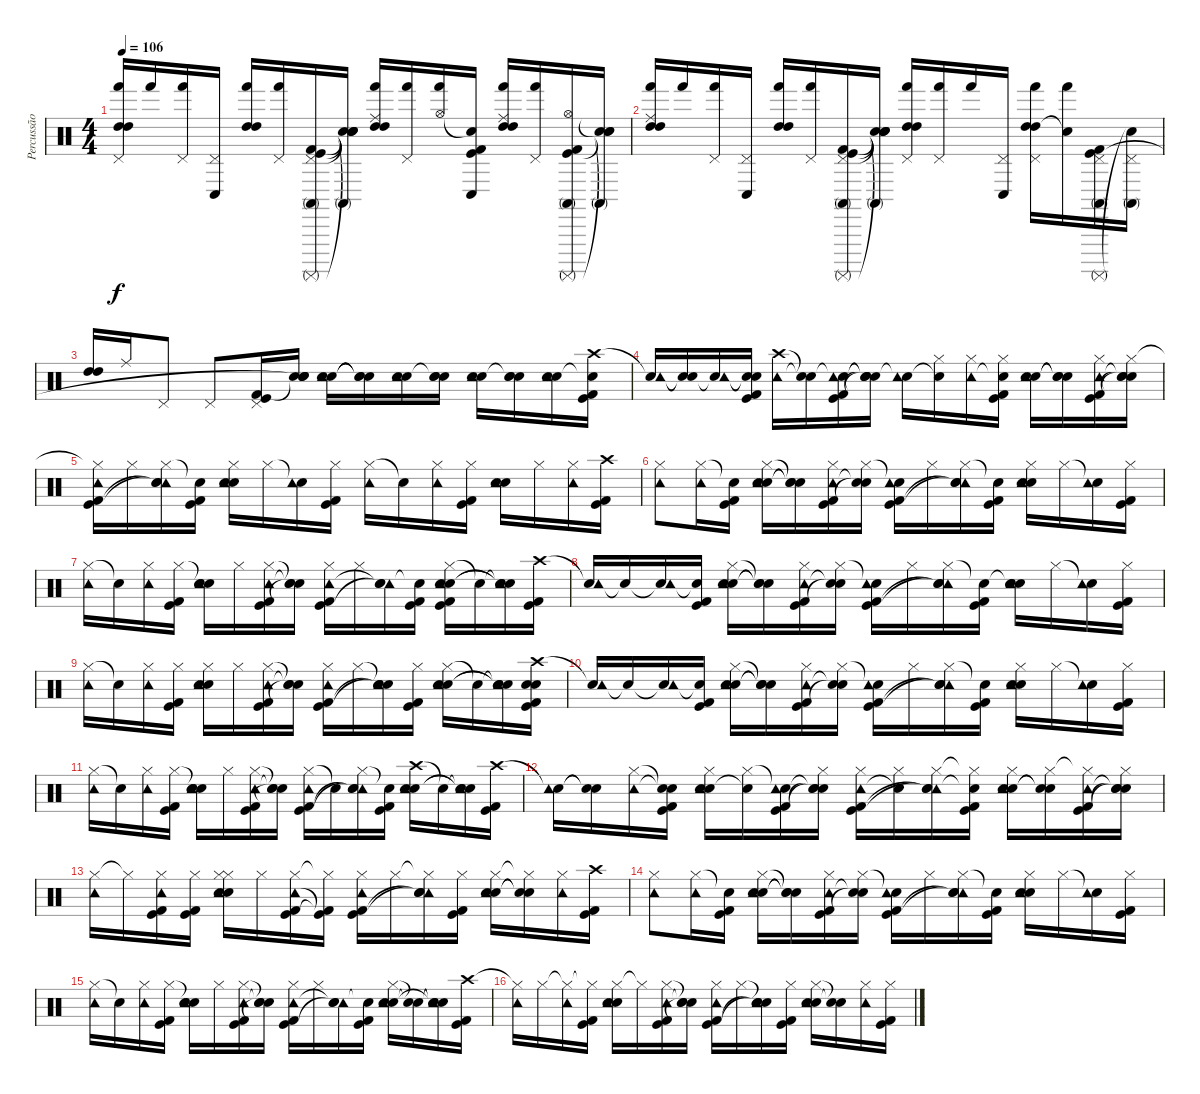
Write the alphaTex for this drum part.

\track ("Percussão" "Percussão") {instrument percussion}
\staff {score}
\articulation defaults
\ts (4 4)
\tempo 106
\clef neutral
\ks c
("Hand (hit)" "High Tom (hit)" "High Tom (hit)" "Pedal Hi-Hat (hit)").16{dy f} "Hand (hit)".16 ("Hand (hit)" "Pedal Hi-Hat (hit)").16 ("Conga low (hit)" "Pedal Hi-Hat (hit)").16 ("Hand (hit)" "High Tom (hit)" "High Tom (hit)").16 ("Hand (hit)" "Pedal Hi-Hat (hit)").16 ("Conga high (mute)" "Surdo (mute)" "Pedal Hi-Hat (hit)" "Kick (hit)" "Kick (hit) 2").16 ("Conga high (mute)" "Snare (hit)"{t} "Snare (hit)"{t} "Snare (hit)"{t} "Snare (hit)"{t}).16 ("Hand (hit)" "High Tom (hit)" "High Tom (hit)" "Ride (middle)").16 ("Hand (hit)" "Pedal Hi-Hat (hit)").16 ("Hand (hit)" "Hi-Hat (open)").16 ("Conga low (hit)" "Snare (hit)"{t} "Kick (hit) 2" "Kick (hit)").16 ("Hand (hit)" "High Tom (hit)" "High Tom (hit)" "Ride (middle)").16 ("Hand (hit)" "Pedal Hi-Hat (hit)").16 ("Conga high (mute)" "Surdo (mute)" "Hi-Hat (open)" "Kick (hit)" "Kick (hit) 2").16 ("Conga high (mute)" "Snare (hit)"{t} "Snare (hit)"{t} "Snare (hit)"{t}).16 |
("Hand (hit)" "High Tom (hit)" "High Tom (hit)" "Ride (middle)").16 "Hand (hit)".16 ("Hand (hit)" "Pedal Hi-Hat (hit)").16 ("Conga low (hit)" "Pedal Hi-Hat (hit)").16 ("Hand (hit)" "High Tom (hit)" "High Tom (hit)").16 ("Hand (hit)" "Pedal Hi-Hat (hit)").16 ("Conga high (mute)" "Surdo (mute)" "Pedal Hi-Hat (hit)" "Kick (hit)" "Kick (hit) 2").16 ("Conga high (mute)" "Snare (hit)"{t} "Snare (hit)"{t} "Snare (hit)"{t} "Snare (hit)"{t}).16 ("Hand (hit)" "High Tom (hit)" "High Tom (hit)" "Pedal Hi-Hat (hit)").16 ("Hand (hit)" "Pedal Hi-Hat (hit)").16 "Hand (hit)".16 ("Conga low (hit)" "Pedal Hi-Hat (hit)").16 ("Hand (hit)" "High Tom (hit)" "High Tom (hit)" "Pedal Hi-Hat (hit)").16 ("Hand (hit)" "Snare (hit)"{t}).16 ("Conga high (mute)" "Surdo (mute)" "Pedal Hi-Hat (hit)" "Kick (hit)" "Kick (hit) 2").16 ("Conga high (mute)" "Snare (hit)"{t} "Pedal Hi-Hat (hit)").16 |
("High Tom (hit)" "High Tom (hit)").16 "Ride (middle)".16 "Pedal Hi-Hat (hit)".8 "Pedal Hi-Hat (hit)".8 ("Pedal Hi-Hat (hit)" "Kick (hit)" "Kick (hit) 2").16 ("Electric Snare (hit)" "Snare (hit) 2" "Snare (hit)"{t} "Snare (hit)"{t}).16 ("Electric Snare (hit)" "Snare (hit) 2" "Tambourine (hit)").16 ("Snare (hit)"{t} "Snare (hit)"{t} "Snare (hit)"{t}).16 ("Electric Snare (hit)" "Snare (hit) 2" "Tambourine (hit)").16 ("Electric Snare (hit)" "Snare (hit) 2" "Snare (hit)"{t}).16 ("Electric Snare (hit)" "Snare (hit) 2" "Tambourine (hit)").16 ("Electric Snare (hit)" "Snare (hit) 2" "Snare (hit)"{t}).16 ("Electric Snare (hit)" "Snare (hit) 2" "Tambourine (hit)").16 ("Crash high (hit)" "Snare (hit)"{t} "Kick (hit)" "Kick (hit) 2").16 |
("Snare (hit)"{t} "Tambourine (hit)").16 ("Snare (hit)"{t} "Snare (hit)"{t}).16 ("Snare (hit)"{t} "Tambourine (hit)").16 ("Snare (hit)"{t} "Snare (hit)"{t} "Kick (hit)" "Kick (hit) 2").16 ("Crash high (hit)" "Tambourine (hit)").16 ("Snare (hit)"{t} "Snare (hit)"{t}).16 ("Snare (hit)"{t} "Tambourine (hit)" "Kick (hit)" "Kick (hit) 2").16 ("Snare (hit)"{t} "Snare (hit)"{t} "Snare (hit)"{t} "Snare (hit)"{t}).16 ("Snare (hit)"{t} "Tambourine (hit)").16 ("Hi-Hat (closed)" "Snare (hit)"{t}).16 ("Hi-Hat (closed)" "Tambourine (hit)").16 ("Hi-Hat (closed)" "Snare (hit)"{t} "Kick (hit)" "Kick (hit) 2").16 ("Electric Snare (hit)" "Snare (hit) 2" "Tambourine (hit)").16 ("Snare (hit)"{t} "Snare (hit)"{t} "Snare (hit)"{t}).16 ("Hi-Hat (closed)" "Tambourine (hit)" "Kick (hit)" "Kick (hit) 2").16 ("Hi-Hat (closed)" "Snare (hit)"{t} "Snare (hit)"{t} "Snare (hit)"{t}).16 |
("Hi-Hat (closed)"{t} "Tambourine (hit)" "Kick (hit)" "Kick (hit) 2").16 "Hi-Hat (closed)".16 ("Hi-Hat (closed)" "Tambourine (hit)" "Snare (hit)"{t} "Snare (hit)"{t}).16 ("Snare (hit)"{t} "Kick (hit) 2" "Kick (hit)").16 ("Electric Snare (hit)" "Snare (hit) 2" "Tambourine (hit)" "Hi-Hat (closed)").16 "Hi-Hat (closed)".16 ("Snare (hit)"{t} "Tambourine (hit)").16 ("Hi-Hat (closed)" "Kick (hit)" "Kick (hit) 2").16 ("Hi-Hat (closed)" "Tambourine (hit)").16 "Snare (hit)"{t}.16 ("Hi-Hat (closed)" "Tambourine (hit)").16 ("Hi-Hat (closed)" "Kick (hit)" "Kick (hit) 2").16 ("Electric Snare (hit)" "Snare (hit) 2" "Tambourine (hit)").16 "Hi-Hat (closed)".16 ("Hi-Hat (closed)" "Tambourine (hit)").16 ("Crash high (hit)" "Kick (hit)" "Kick (hit) 2").16 |
("Hi-Hat (closed)" "Tambourine (hit)").8 ("Hi-Hat (closed)" "Tambourine (hit)").16 ("Snare (hit)"{t} "Kick (hit)" "Kick (hit) 2").16 ("Hi-Hat (closed)" "Electric Snare (hit)" "Snare (hit) 2" "Tambourine (hit)").16 ("Snare (hit)"{t} "Snare (hit)"{t} "Snare (hit)"{t}).16 ("Hi-Hat (closed)" "Tambourine (hit)" "Kick (hit)" "Kick (hit) 2").16 ("Hi-Hat (closed)" "Snare (hit)"{t} "Snare (hit)"{t}).16 ("Snare (hit)"{t} "Tambourine (hit)" "Kick (hit)" "Kick (hit) 2").16 "Hi-Hat (closed)".16 ("Hi-Hat (closed)" "Tambourine (hit)" "Snare (hit)"{t} "Snare (hit)"{t}).16 ("Snare (hit)"{t} "Kick (hit)" "Kick (hit) 2").16 ("Hi-Hat (closed)" "Electric Snare (hit)" "Snare (hit) 2" "Tambourine (hit)").16 "Hi-Hat (closed)".16 ("Snare (hit)"{t} "Tambourine (hit)").16 ("Hi-Hat (closed)" "Kick (hit)" "Kick (hit) 2").16 |
("Hi-Hat (closed)" "Tambourine (hit)").16 "Snare (hit)"{t}.16 ("Hi-Hat (closed)" "Tambourine (hit)").16 ("Hi-Hat (closed)" "Kick (hit)" "Kick (hit) 2").16 ("Snare (hit)"{t} "Electric Snare (hit)" "Snare (hit) 2" "Tambourine (hit)").16 "Hi-Hat (closed)".16 ("Hi-Hat (closed)" "Tambourine (hit)" "Kick (hit)" "Kick (hit) 2").16 ("Snare (hit)"{t} "Snare (hit)"{t} "Snare (hit)"{t}).16 ("Hi-Hat (closed)" "Tambourine (hit)" "Kick (hit)" "Kick (hit) 2").16 "Hi-Hat (closed)".16 ("Tambourine (hit)" "Snare (hit)"{t} "Snare (hit)"{t}).16 ("Snare (hit)"{t} "Kick (hit) 2" "Kick (hit)").16 ("Hi-Hat (closed)" "Electric Snare (hit)" "Snare (hit) 2" "Tambourine (hit)" "Kick (hit)" "Kick (hit) 2").16 "Snare (hit)"{t}.16 ("Snare (hit)"{t} "Tambourine (hit)" "Snare (hit)"{t} "Snare (hit)"{t}).16 ("Crash high (hit)" "Kick (hit)" "Kick (hit) 2").16 |
("Snare (hit)"{t} "Tambourine (hit)").16 "Snare (hit)"{t}.16 ("Snare (hit)"{t} "Tambourine (hit)").16 ("Snare (hit)"{t} "Kick (hit)" "Kick (hit) 2").16 ("Hi-Hat (closed)" "Electric Snare (hit)" "Snare (hit) 2" "Tambourine (hit)").16 ("Snare (hit)"{t} "Snare (hit)"{t} "Snare (hit)"{t}).16 ("Hi-Hat (closed)" "Tambourine (hit)" "Kick (hit)" "Kick (hit) 2").16 ("Hi-Hat (closed)" "Snare (hit)"{t} "Snare (hit)"{t}).16 ("Snare (hit)"{t} "Tambourine (hit)" "Kick (hit) 2" "Kick (hit)").16 "Hi-Hat (closed)".16 ("Hi-Hat (closed)" "Tambourine (hit)" "Snare (hit)"{t} "Snare (hit)"{t}).16 ("Snare (hit)"{t} "Kick (hit)" "Kick (hit) 2").16 ("Snare (hit)"{t} "Electric Snare (hit)" "Snare (hit) 2" "Tambourine (hit)").16 "Hi-Hat (closed)".16 ("Snare (hit)"{t} "Tambourine (hit)").16 ("Hi-Hat (closed)" "Kick (hit)" "Kick (hit) 2").16 |
("Hi-Hat (closed)" "Tambourine (hit)").16 "Snare (hit)"{t}.16 ("Hi-Hat (closed)" "Tambourine (hit)").16 ("Hi-Hat (closed)" "Kick (hit)" "Kick (hit) 2").16 ("Hi-Hat (closed)" "Electric Snare (hit)" "Snare (hit) 2" "Tambourine (hit)").16 "Hi-Hat (closed)".16 ("Hi-Hat (closed)" "Tambourine (hit)" "Kick (hit)" "Kick (hit) 2").16 ("Snare (hit)"{t} "Snare (hit)"{t} "Snare (hit)"{t}).16 ("Hi-Hat (closed)" "Tambourine (hit)" "Kick (hit) 2" "Kick (hit)").16 "Hi-Hat (closed)".16 ("Snare (hit)"{t} "Tambourine (hit)" "Snare (hit)"{t} "Snare (hit)"{t}).16 ("Hi-Hat (closed)" "Kick (hit)" "Kick (hit) 2").16 ("Hi-Hat (closed)" "Electric Snare (hit)" "Snare (hit) 2" "Tambourine (hit)").16 "Snare (hit)"{t}.16 ("Snare (hit)"{t} "Snare (hit)"{t} "Snare (hit)"{t} "Tambourine (hit)").16 ("Crash high (hit)" "Electric Snare (hit)" "Snare (hit) 2" "Kick (hit)" "Kick (hit) 2").16 |
("Snare (hit)"{t} "Tambourine (hit)").16 "Snare (hit)"{t}.16 ("Snare (hit)"{t} "Tambourine (hit)").16 ("Snare (hit)"{t} "Kick (hit)" "Kick (hit) 2").16 ("Hi-Hat (closed)" "Electric Snare (hit)" "Snare (hit) 2" "Tambourine (hit)").16 ("Snare (hit)"{t} "Snare (hit)"{t} "Snare (hit)"{t}).16 ("Hi-Hat (closed)" "Tambourine (hit)" "Kick (hit)" "Kick (hit) 2").16 ("Hi-Hat (closed)" "Snare (hit)"{t} "Snare (hit)"{t}).16 ("Snare (hit)"{t} "Tambourine (hit)" "Kick (hit)" "Kick (hit) 2").16 "Hi-Hat (closed)".16 ("Hi-Hat (closed)" "Tambourine (hit)" "Snare (hit)"{t} "Snare (hit)"{t}).16 ("Snare (hit)"{t} "Kick (hit)" "Kick (hit) 2").16 ("Hi-Hat (closed)" "Electric Snare (hit)" "Snare (hit) 2" "Tambourine (hit)").16 "Hi-Hat (closed)".16 ("Snare (hit)"{t} "Tambourine (hit)").16 ("Hi-Hat (closed)" "Kick (hit)" "Kick (hit) 2").16 |
("Hi-Hat (closed)" "Tambourine (hit)").16 "Snare (hit)"{t}.16 ("Hi-Hat (closed)" "Tambourine (hit)").16 ("Hi-Hat (closed)" "Kick (hit)" "Kick (hit) 2").16 ("Snare (hit)"{t} "Electric Snare (hit)" "Snare (hit) 2" "Tambourine (hit)").16 "Hi-Hat (closed)".16 ("Hi-Hat (closed)" "Tambourine (hit)" "Kick (hit) 2" "Kick (hit)").16 ("Snare (hit)"{t} "Snare (hit)"{t} "Snare (hit)"{t}).16 ("Hi-Hat (closed)" "Tambourine (hit)" "Kick (hit) 2" "Kick (hit)").16 "Snare (hit)"{t}.16 ("Hi-Hat (closed)" "Tambourine (hit)" "Snare (hit)"{t} "Snare (hit)"{t}).16 ("Snare (hit)"{t} "Kick (hit) 2" "Kick (hit)").16 ("Crash high (hit)" "Electric Snare (hit)" "Snare (hit) 2" "Tambourine (hit)").16 "Snare (hit)"{t}.16 ("Snare (hit)"{t} "Snare (hit)"{t} "Snare (hit)"{t} "Tambourine (hit)").16 ("Crash high (hit)" "Kick (hit) 2" "Kick (hit)").16 |
("Snare (hit)"{t} "Tambourine (hit)").16 ("Snare (hit)"{t} "Snare (hit)"{t}).16 ("Hi-Hat (closed)" "Tambourine (hit)").16 ("Snare (hit)"{t} "Snare (hit)"{t} "Kick (hit)" "Kick (hit) 2").16 ("Hi-Hat (closed)" "Electric Snare (hit)" "Tambourine (hit)" "Snare (hit) 2").16 ("Hi-Hat (closed)" "Snare (hit)"{t}).16 ("Snare (hit)"{t} "Tambourine (hit)" "Kick (hit)" "Kick (hit) 2").16 ("Hi-Hat (closed)" "Snare (hit)"{t} "Snare (hit)"{t} "Snare (hit)"{t}).16 ("Hi-Hat (closed)" "Tambourine (hit)" "Kick (hit)" "Kick (hit) 2").16 ("Hi-Hat (closed)" "Snare (hit)"{t}).16 ("Hi-Hat (closed)" "Tambourine (hit)" "Snare (hit)"{t} "Snare (hit)"{t}).16 ("Hi-Hat (closed)"{t} "Snare (hit)"{t} "Kick (hit)" "Kick (hit) 2").16 ("Electric Snare (hit)" "Snare (hit) 2" "Tambourine (hit)" "Hi-Hat (closed)").16 ("Hi-Hat (closed)" "Snare (hit)"{t} "Snare (hit)"{t}).16 ("Hi-Hat (closed)"{t} "Tambourine (hit)" "Kick (hit)" "Kick (hit) 2").16 ("Hi-Hat (closed)" "Snare (hit)"{t} "Snare (hit)"{t} "Snare (hit)"{t}).16 |
("Hi-Hat (closed)" "Tambourine (hit)").16 "Hi-Hat (closed)"{t}.16 ("Hi-Hat (closed)" "Tambourine (hit)" "Kick (hit)" "Kick (hit) 2").16 ("Hi-Hat (closed)" "Kick (hit) 2" "Kick (hit)").16 ("Hi-Hat (closed)" "Electric Snare (hit)" "Snare (hit) 2" "Tambourine (hit)" "Hi-Hat (closed)").16 "Hi-Hat (closed)".16 ("Hi-Hat (closed)" "Tambourine (hit)" "Kick (hit)" "Kick (hit) 2").16 ("Hi-Hat (closed)"{t} "Kick (hit)"{t} "Kick (hit) 2"{t}).16 ("Hi-Hat (closed)" "Tambourine (hit)" "Kick (hit)" "Kick (hit) 2").16 "Hi-Hat (closed)".16 ("Hi-Hat (closed)"{t} "Tambourine (hit)" "Snare (hit)"{t} "Snare (hit)"{t}).16 ("Hi-Hat (closed)" "Kick (hit)" "Kick (hit) 2").16 ("Hi-Hat (closed)" "Electric Snare (hit)" "Snare (hit) 2" "Tambourine (hit)").16 ("Hi-Hat (closed)"{t} "Snare (hit)"{t} "Snare (hit)"{t}).16 ("Hi-Hat (closed)" "Tambourine (hit)").16 ("Crash high (hit)" "Kick (hit)" "Kick (hit) 2").16 |
("Hi-Hat (closed)" "Tambourine (hit)").8 ("Hi-Hat (closed)" "Tambourine (hit)").16 ("Snare (hit)"{t} "Kick (hit)" "Kick (hit) 2").16 ("Hi-Hat (closed)" "Electric Snare (hit)" "Snare (hit) 2" "Tambourine (hit)").16 ("Snare (hit)"{t} "Snare (hit)"{t} "Snare (hit)"{t}).16 ("Hi-Hat (closed)" "Tambourine (hit)" "Kick (hit)" "Kick (hit) 2").16 ("Hi-Hat (closed)" "Snare (hit)"{t} "Snare (hit)"{t}).16 ("Snare (hit)"{t} "Tambourine (hit)" "Kick (hit)" "Kick (hit) 2").16 "Hi-Hat (closed)".16 ("Hi-Hat (closed)" "Tambourine (hit)" "Snare (hit)"{t} "Snare (hit)"{t}).16 ("Snare (hit)"{t} "Kick (hit)" "Kick (hit) 2").16 ("Hi-Hat (closed)" "Electric Snare (hit)" "Snare (hit) 2" "Tambourine (hit)").16 "Hi-Hat (closed)".16 ("Snare (hit)"{t} "Tambourine (hit)").16 ("Hi-Hat (closed)" "Kick (hit)" "Kick (hit) 2").16 |
("Hi-Hat (closed)" "Tambourine (hit)").16 "Snare (hit)"{t}.16 ("Hi-Hat (closed)" "Tambourine (hit)").16 ("Hi-Hat (closed)" "Kick (hit)" "Kick (hit) 2").16 ("Snare (hit)"{t} "Electric Snare (hit)" "Snare (hit) 2" "Tambourine (hit)").16 "Hi-Hat (closed)".16 ("Hi-Hat (closed)" "Tambourine (hit)" "Kick (hit)" "Kick (hit) 2").16 ("Snare (hit)"{t} "Snare (hit)"{t} "Snare (hit)"{t}).16 ("Hi-Hat (closed)" "Tambourine (hit)" "Kick (hit)" "Kick (hit) 2").16 "Hi-Hat (closed)".16 ("Tambourine (hit)" "Snare (hit)"{t} "Snare (hit)"{t}).16 ("Snare (hit)"{t} "Kick (hit) 2" "Kick (hit)").16 ("Hi-Hat (closed)" "Electric Snare (hit)" "Snare (hit) 2" "Tambourine (hit)").16 ("Snare (hit)"{t} "Snare (hit)"{t}).16 ("Snare (hit)"{t} "Snare (hit)"{t} "Snare (hit)"{t} "Tambourine (hit)").16 ("Crash high (hit)" "Kick (hit)" "Kick (hit) 2").16 |
("Hi-Hat (closed)"{t} "Tambourine (hit)").16 "Hi-Hat (closed)".16 ("Hi-Hat (closed)"{t} "Tambourine (hit)").16 ("Hi-Hat (closed)"{t} "Kick (hit)" "Kick (hit) 2").16 ("Hi-Hat (closed)" "Electric Snare (hit)" "Snare (hit) 2" "Tambourine (hit)").16 "Hi-Hat (closed)"{t}.16 ("Hi-Hat (closed)" "Tambourine (hit)" "Kick (hit)" "Kick (hit) 2").16 ("Snare (hit)"{t} "Snare (hit)"{t} "Snare (hit)"{t}).16 ("Hi-Hat (closed)" "Tambourine (hit)" "Kick (hit)" "Kick (hit) 2").16 "Hi-Hat (closed)".16 ("Snare (hit)"{t} "Tambourine (hit)" "Snare (hit)"{t} "Snare (hit)"{t}).16 ("Hi-Hat (closed)" "Kick (hit) 2" "Kick (hit)").16 ("Hi-Hat (closed)" "Electric Snare (hit)" "Snare (hit) 2" "Tambourine (hit)").16 ("Snare (hit)"{t} "Snare (hit)"{t}).16 ("Hi-Hat (closed)" "Tambourine (hit)").16 ("Hi-Hat (closed)" "Kick (hit)" "Kick (hit) 2").16
